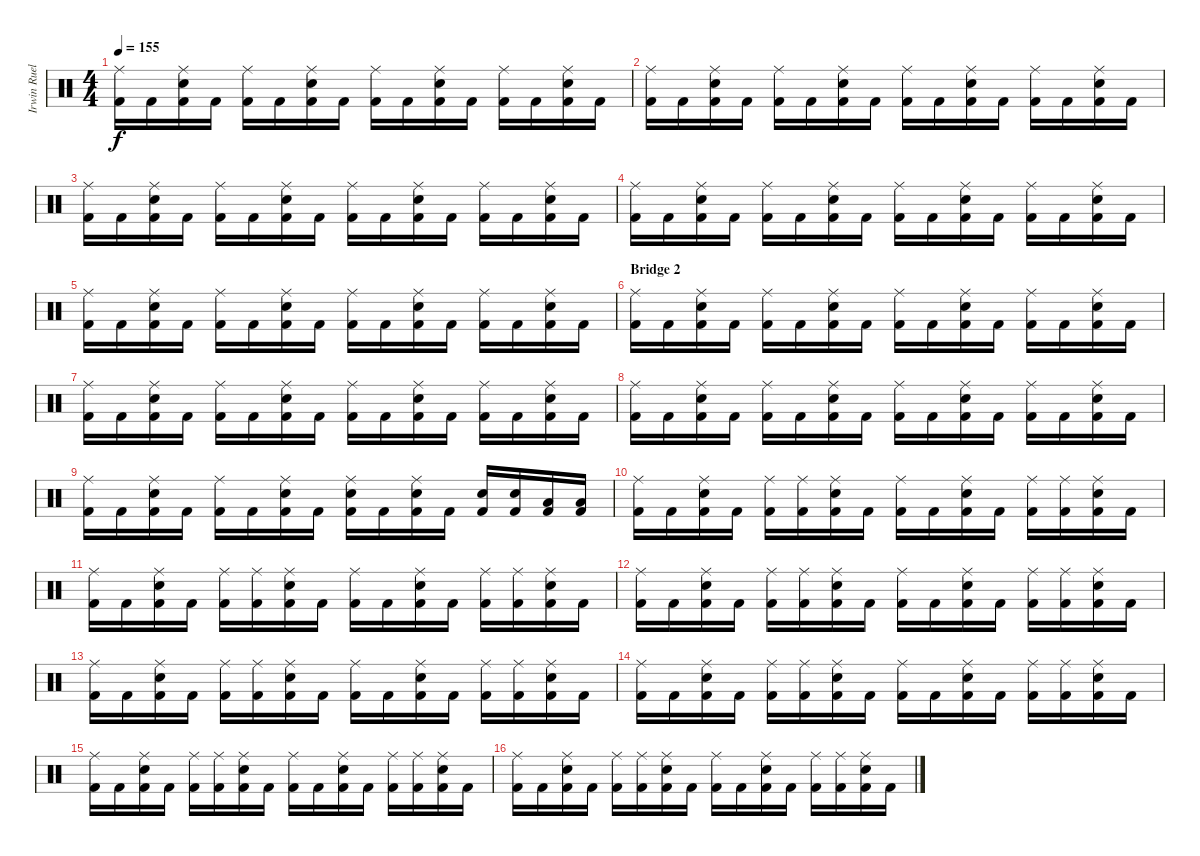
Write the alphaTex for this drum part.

\track ("Irwin Ruelas" "Irwin Ruel") {instrument percussion}
\staff {score}
\articulation defaults
\ts (4 4)
\tempo 155
\clef neutral
\ks c
("Ride (middle)" "Kick (hit) 2").16{dy f} "Kick (hit) 2".16 ("Ride (middle)" "Electric Snare (hit)" "Kick (hit) 2").16 "Kick (hit) 2".16 ("Ride (middle)" "Kick (hit) 2").16 "Kick (hit) 2".16 ("Ride (middle)" "Electric Snare (hit)" "Kick (hit) 2").16 "Kick (hit) 2".16 ("Ride (middle)" "Kick (hit) 2").16 "Kick (hit) 2".16 ("Ride (middle)" "Electric Snare (hit)" "Kick (hit) 2").16 "Kick (hit) 2".16 ("Ride (middle)" "Kick (hit) 2").16 "Kick (hit) 2".16 ("Ride (middle)" "Electric Snare (hit)" "Kick (hit) 2").16 "Kick (hit) 2".16 |
("Ride (middle)" "Kick (hit) 2").16 "Kick (hit) 2".16 ("Ride (middle)" "Electric Snare (hit)" "Kick (hit) 2").16 "Kick (hit) 2".16 ("Ride (middle)" "Kick (hit) 2").16 "Kick (hit) 2".16 ("Ride (middle)" "Electric Snare (hit)" "Kick (hit) 2").16 "Kick (hit) 2".16 ("Ride (middle)" "Kick (hit) 2").16 "Kick (hit) 2".16 ("Ride (middle)" "Electric Snare (hit)" "Kick (hit) 2").16 "Kick (hit) 2".16 ("Ride (middle)" "Kick (hit) 2").16 "Kick (hit) 2".16 ("Ride (middle)" "Electric Snare (hit)" "Kick (hit) 2").16 "Kick (hit) 2".16 |
("Ride (middle)" "Kick (hit) 2").16 "Kick (hit) 2".16 ("Ride (middle)" "Electric Snare (hit)" "Kick (hit) 2").16 "Kick (hit) 2".16 ("Ride (middle)" "Kick (hit) 2").16 "Kick (hit) 2".16 ("Ride (middle)" "Electric Snare (hit)" "Kick (hit) 2").16 "Kick (hit) 2".16 ("Ride (middle)" "Kick (hit) 2").16 "Kick (hit) 2".16 ("Ride (middle)" "Electric Snare (hit)" "Kick (hit) 2").16 "Kick (hit) 2".16 ("Ride (middle)" "Kick (hit) 2").16 "Kick (hit) 2".16 ("Ride (middle)" "Electric Snare (hit)" "Kick (hit) 2").16 "Kick (hit) 2".16 |
("Ride (middle)" "Kick (hit) 2").16 "Kick (hit) 2".16 ("Ride (middle)" "Electric Snare (hit)" "Kick (hit) 2").16 "Kick (hit) 2".16 ("Ride (middle)" "Kick (hit) 2").16 "Kick (hit) 2".16 ("Ride (middle)" "Electric Snare (hit)" "Kick (hit) 2").16 "Kick (hit) 2".16 ("Ride (middle)" "Kick (hit) 2").16 "Kick (hit) 2".16 ("Ride (middle)" "Electric Snare (hit)" "Kick (hit) 2").16 "Kick (hit) 2".16 ("Ride (middle)" "Kick (hit) 2").16 "Kick (hit) 2".16 ("Ride (middle)" "Electric Snare (hit)" "Kick (hit) 2").16 "Kick (hit) 2".16 |
("Ride (middle)" "Kick (hit) 2").16 "Kick (hit) 2".16 ("Ride (middle)" "Electric Snare (hit)" "Kick (hit) 2").16 "Kick (hit) 2".16 ("Ride (middle)" "Kick (hit) 2").16 "Kick (hit) 2".16 ("Ride (middle)" "Electric Snare (hit)" "Kick (hit) 2").16 "Kick (hit) 2".16 ("Ride (middle)" "Kick (hit) 2").16 "Kick (hit) 2".16 ("Ride (middle)" "Electric Snare (hit)" "Kick (hit) 2").16 "Kick (hit) 2".16 ("Ride (middle)" "Kick (hit) 2").16 "Kick (hit) 2".16 ("Ride (middle)" "Electric Snare (hit)" "Kick (hit) 2").16 "Kick (hit) 2".16 |
\section ("" "Bridge 2")
("Ride (middle)" "Kick (hit) 2").16 "Kick (hit) 2".16 ("Ride (middle)" "Electric Snare (hit)" "Kick (hit) 2").16 "Kick (hit) 2".16 ("Ride (middle)" "Kick (hit) 2").16 "Kick (hit) 2".16 ("Ride (middle)" "Electric Snare (hit)" "Kick (hit) 2").16 "Kick (hit) 2".16 ("Ride (middle)" "Kick (hit) 2").16 "Kick (hit) 2".16 ("Ride (middle)" "Electric Snare (hit)" "Kick (hit) 2").16 "Kick (hit) 2".16 ("Ride (middle)" "Kick (hit) 2").16 "Kick (hit) 2".16 ("Ride (middle)" "Electric Snare (hit)" "Kick (hit) 2").16 "Kick (hit) 2".16 |
("Ride (middle)" "Kick (hit) 2").16 "Kick (hit) 2".16 ("Ride (middle)" "Electric Snare (hit)" "Kick (hit) 2").16 "Kick (hit) 2".16 ("Ride (middle)" "Kick (hit) 2").16 "Kick (hit) 2".16 ("Ride (middle)" "Electric Snare (hit)" "Kick (hit) 2").16 "Kick (hit) 2".16 ("Ride (middle)" "Kick (hit) 2").16 "Kick (hit) 2".16 ("Ride (middle)" "Electric Snare (hit)" "Kick (hit) 2").16 "Kick (hit) 2".16 ("Ride (middle)" "Kick (hit) 2").16 "Kick (hit) 2".16 ("Ride (middle)" "Electric Snare (hit)" "Kick (hit) 2").16 "Kick (hit) 2".16 |
("Ride (middle)" "Kick (hit) 2").16 "Kick (hit) 2".16 ("Ride (middle)" "Electric Snare (hit)" "Kick (hit) 2").16 "Kick (hit) 2".16 ("Ride (middle)" "Kick (hit) 2").16 "Kick (hit) 2".16 ("Ride (middle)" "Electric Snare (hit)" "Kick (hit) 2").16 "Kick (hit) 2".16 ("Ride (middle)" "Kick (hit) 2").16 "Kick (hit) 2".16 ("Ride (middle)" "Electric Snare (hit)" "Kick (hit) 2").16 "Kick (hit) 2".16 ("Ride (middle)" "Kick (hit) 2").16 "Kick (hit) 2".16 ("Ride (middle)" "Electric Snare (hit)" "Kick (hit) 2").16 "Kick (hit) 2".16 |
("Ride (middle)" "Kick (hit) 2").16 "Kick (hit) 2".16 ("Ride (middle)" "Electric Snare (hit)" "Kick (hit) 2").16 "Kick (hit) 2".16 ("Ride (middle)" "Kick (hit) 2").16 "Kick (hit) 2".16 ("Ride (middle)" "Electric Snare (hit)" "Kick (hit) 2").16 "Kick (hit) 2".16 ("Ride (middle)" "Electric Snare (hit)" "Kick (hit) 2").16 "Kick (hit) 2".16 ("Ride (middle)" "Electric Snare (hit)" "Kick (hit) 2").16 "Kick (hit) 2".16 ("Electric Snare (hit)" "Kick (hit) 2").16 ("Electric Snare (hit)" "Kick (hit) 2").16 ("Low Tom (hit)" "Kick (hit) 2").16 ("Low Tom (hit)" "Kick (hit) 2").16 |
("Ride (middle)" "Kick (hit) 2").16 "Kick (hit) 2".16 ("Ride (middle)" "Electric Snare (hit)" "Kick (hit) 2").16 "Kick (hit) 2".16 ("Ride (middle)" "Kick (hit) 2").16 ("Ride (middle)" "Kick (hit) 2").16 ("Ride (middle)" "Electric Snare (hit)" "Kick (hit) 2").16 "Kick (hit) 2".16 ("Ride (middle)" "Kick (hit) 2").16 "Kick (hit) 2".16 ("Ride (middle)" "Electric Snare (hit)" "Kick (hit) 2").16 "Kick (hit) 2".16 ("Ride (middle)" "Kick (hit) 2").16 ("Ride (middle)" "Kick (hit) 2").16 ("Ride (middle)" "Electric Snare (hit)" "Kick (hit) 2").16 "Kick (hit) 2".16 |
("Ride (middle)" "Kick (hit) 2").16 "Kick (hit) 2".16 ("Ride (middle)" "Electric Snare (hit)" "Kick (hit) 2").16 "Kick (hit) 2".16 ("Ride (middle)" "Kick (hit) 2").16 ("Ride (middle)" "Kick (hit) 2").16 ("Ride (middle)" "Electric Snare (hit)" "Kick (hit) 2").16 "Kick (hit) 2".16 ("Ride (middle)" "Kick (hit) 2").16 "Kick (hit) 2".16 ("Ride (middle)" "Electric Snare (hit)" "Kick (hit) 2").16 "Kick (hit) 2".16 ("Ride (middle)" "Kick (hit) 2").16 ("Ride (middle)" "Kick (hit) 2").16 ("Ride (middle)" "Electric Snare (hit)" "Kick (hit) 2").16 "Kick (hit) 2".16 |
("Ride (middle)" "Kick (hit) 2").16 "Kick (hit) 2".16 ("Ride (middle)" "Electric Snare (hit)" "Kick (hit) 2").16 "Kick (hit) 2".16 ("Ride (middle)" "Kick (hit) 2").16 ("Ride (middle)" "Kick (hit) 2").16 ("Ride (middle)" "Electric Snare (hit)" "Kick (hit) 2").16 "Kick (hit) 2".16 ("Ride (middle)" "Kick (hit) 2").16 "Kick (hit) 2".16 ("Ride (middle)" "Electric Snare (hit)" "Kick (hit) 2").16 "Kick (hit) 2".16 ("Ride (middle)" "Kick (hit) 2").16 ("Ride (middle)" "Kick (hit) 2").16 ("Ride (middle)" "Electric Snare (hit)" "Kick (hit) 2").16 "Kick (hit) 2".16 |
("Ride (middle)" "Kick (hit) 2").16 "Kick (hit) 2".16 ("Ride (middle)" "Electric Snare (hit)" "Kick (hit) 2").16 "Kick (hit) 2".16 ("Ride (middle)" "Kick (hit) 2").16 ("Ride (middle)" "Kick (hit) 2").16 ("Ride (middle)" "Electric Snare (hit)" "Kick (hit) 2").16 "Kick (hit) 2".16 ("Ride (middle)" "Kick (hit) 2").16 "Kick (hit) 2".16 ("Ride (middle)" "Electric Snare (hit)" "Kick (hit) 2").16 "Kick (hit) 2".16 ("Ride (middle)" "Kick (hit) 2").16 ("Ride (middle)" "Kick (hit) 2").16 ("Ride (middle)" "Electric Snare (hit)" "Kick (hit) 2").16 "Kick (hit) 2".16 |
("Ride (middle)" "Kick (hit) 2").16 "Kick (hit) 2".16 ("Ride (middle)" "Electric Snare (hit)" "Kick (hit) 2").16 "Kick (hit) 2".16 ("Ride (middle)" "Kick (hit) 2").16 ("Ride (middle)" "Kick (hit) 2").16 ("Ride (middle)" "Electric Snare (hit)" "Kick (hit) 2").16 "Kick (hit) 2".16 ("Ride (middle)" "Kick (hit) 2").16 "Kick (hit) 2".16 ("Ride (middle)" "Electric Snare (hit)" "Kick (hit) 2").16 "Kick (hit) 2".16 ("Ride (middle)" "Kick (hit) 2").16 ("Ride (middle)" "Kick (hit) 2").16 ("Ride (middle)" "Electric Snare (hit)" "Kick (hit) 2").16 "Kick (hit) 2".16 |
("Ride (middle)" "Kick (hit) 2").16 "Kick (hit) 2".16 ("Ride (middle)" "Electric Snare (hit)" "Kick (hit) 2").16 "Kick (hit) 2".16 ("Ride (middle)" "Kick (hit) 2").16 ("Ride (middle)" "Kick (hit) 2").16 ("Ride (middle)" "Electric Snare (hit)" "Kick (hit) 2").16 "Kick (hit) 2".16 ("Ride (middle)" "Kick (hit) 2").16 "Kick (hit) 2".16 ("Ride (middle)" "Electric Snare (hit)" "Kick (hit) 2").16 "Kick (hit) 2".16 ("Ride (middle)" "Kick (hit) 2").16 ("Ride (middle)" "Kick (hit) 2").16 ("Ride (middle)" "Electric Snare (hit)" "Kick (hit) 2").16 "Kick (hit) 2".16 |
("Ride (middle)" "Kick (hit) 2").16 "Kick (hit) 2".16 ("Ride (middle)" "Electric Snare (hit)" "Kick (hit) 2").16 "Kick (hit) 2".16 ("Ride (middle)" "Kick (hit) 2").16 ("Ride (middle)" "Kick (hit) 2").16 ("Ride (middle)" "Electric Snare (hit)" "Kick (hit) 2").16 "Kick (hit) 2".16 ("Ride (middle)" "Kick (hit) 2").16 "Kick (hit) 2".16 ("Ride (middle)" "Electric Snare (hit)" "Kick (hit) 2").16 "Kick (hit) 2".16 ("Ride (middle)" "Kick (hit) 2").16 ("Ride (middle)" "Kick (hit) 2").16 ("Ride (middle)" "Electric Snare (hit)" "Kick (hit) 2").16 "Kick (hit) 2".16
